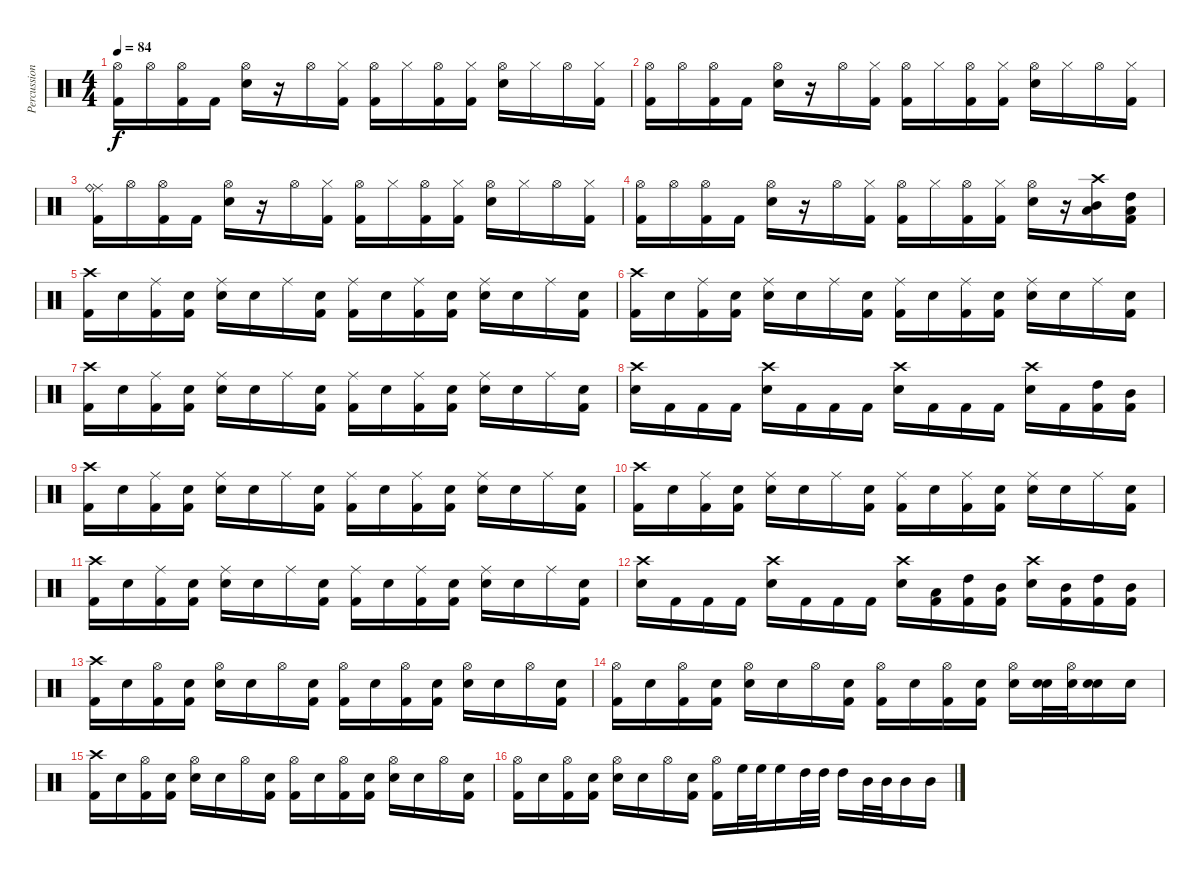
\track ("Percussion" "Percussion") {instrument percussion}
\staff {score}
\articulation defaults
\ts (4 4)
\tempo 84
\clef neutral
\ks c
("Hi-Hat (open)" "Kick (hit) 2").16{dy f} "Hi-Hat (open)".16 ("Hi-Hat (open)" "Kick (hit) 2").16 "Kick (hit) 2".16 ("Hi-Hat (open)" "Electric Snare (hit)").16 r.16 "Hi-Hat (open)".16 ("Hi-Hat (closed)" "Kick (hit) 2").16 ("Hi-Hat (open)" "Kick (hit) 2").16 "Hi-Hat (closed)".16 ("Hi-Hat (open)" "Kick (hit) 2").16 ("Hi-Hat (closed)" "Kick (hit) 2").16 ("Hi-Hat (open)" "Electric Snare (hit)").16 "Hi-Hat (closed)".16 "Hi-Hat (open)".16 ("Hi-Hat (closed)" "Kick (hit) 2").16 |
("Hi-Hat (open)" "Kick (hit) 2").16 "Hi-Hat (open)".16 ("Hi-Hat (open)" "Kick (hit) 2").16 "Kick (hit) 2".16 ("Hi-Hat (open)" "Electric Snare (hit)").16 r.16 "Hi-Hat (open)".16 ("Hi-Hat (closed)" "Kick (hit) 2").16 ("Hi-Hat (open)" "Kick (hit) 2").16 "Hi-Hat (closed)".16 ("Hi-Hat (open)" "Kick (hit) 2").16 ("Hi-Hat (closed)" "Kick (hit) 2").16 ("Hi-Hat (open)" "Electric Snare (hit)").16 "Hi-Hat (closed)".16 "Hi-Hat (open)".16 ("Hi-Hat (closed)" "Kick (hit) 2").16 |
("Ride (middle)" "Ride (bell)" "Kick (hit) 2").16 "Hi-Hat (open)".16 ("Hi-Hat (open)" "Kick (hit) 2").16 "Kick (hit) 2".16 ("Hi-Hat (open)" "Electric Snare (hit)").16 r.16 "Hi-Hat (open)".16 ("Hi-Hat (closed)" "Kick (hit) 2").16 ("Hi-Hat (open)" "Kick (hit) 2").16 "Hi-Hat (closed)".16 ("Hi-Hat (open)" "Kick (hit) 2").16 ("Hi-Hat (closed)" "Kick (hit) 2").16 ("Hi-Hat (open)" "Electric Snare (hit)").16 "Hi-Hat (closed)".16 "Hi-Hat (open)".16 ("Hi-Hat (closed)" "Kick (hit) 2").16 |
("Hi-Hat (open)" "Kick (hit) 2").16 "Hi-Hat (open)".16 ("Hi-Hat (open)" "Kick (hit) 2").16 "Kick (hit) 2".16 ("Hi-Hat (open)" "Electric Snare (hit)").16 r.16 "Hi-Hat (open)".16 ("Hi-Hat (closed)" "Kick (hit) 2").16 ("Hi-Hat (open)" "Kick (hit) 2").16 "Hi-Hat (closed)".16 ("Hi-Hat (open)" "Kick (hit) 2").16 ("Hi-Hat (closed)" "Kick (hit) 2").16 ("Hi-Hat (open)" "Snare (hit) 2").16 r.16 ("Crash high (hit)" "Mid Tom (hit)" "Low Tom (hit)").16 ("High Tom (hit)" "Low Tom (hit)" "Kick (hit) 2").16 |
("Crash high (hit)" "Kick (hit) 2").16 "Snare (hit)".16 ("Ride (middle)" "Kick (hit) 2").16 ("Snare (hit)" "Kick (hit) 2").16 ("Ride (middle)" "Snare (hit) 2").16 "Snare (hit)".16 "Ride (middle)".16 ("Snare (hit)" "Kick (hit) 2").16 ("Ride (middle)" "Kick (hit) 2").16 "Snare (hit)".16 ("Ride (middle)" "Kick (hit) 2").16 ("Snare (hit)" "Kick (hit) 2").16 ("Ride (middle)" "Snare (hit) 2").16 "Snare (hit)".16 "Ride (middle)".16 ("Snare (hit)" "Kick (hit) 2").16 |
("Crash high (hit)" "Kick (hit) 2").16 "Snare (hit)".16 ("Ride (middle)" "Kick (hit) 2").16 ("Snare (hit)" "Kick (hit) 2").16 ("Ride (middle)" "Snare (hit) 2").16 "Snare (hit)".16 "Ride (middle)".16 ("Snare (hit)" "Kick (hit) 2").16 ("Ride (middle)" "Kick (hit) 2").16 "Snare (hit)".16 ("Ride (middle)" "Kick (hit) 2").16 ("Snare (hit)" "Kick (hit) 2").16 ("Ride (middle)" "Snare (hit) 2").16 "Snare (hit)".16 "Ride (middle)".16 ("Snare (hit)" "Kick (hit) 2").16 |
("Crash high (hit)" "Kick (hit) 2").16 "Snare (hit)".16 ("Ride (middle)" "Kick (hit) 2").16 ("Snare (hit)" "Kick (hit) 2").16 ("Ride (middle)" "Snare (hit) 2").16 "Snare (hit)".16 "Ride (middle)".16 ("Snare (hit)" "Kick (hit) 2").16 ("Ride (middle)" "Kick (hit) 2").16 "Snare (hit)".16 ("Ride (middle)" "Kick (hit) 2").16 ("Snare (hit)" "Kick (hit) 2").16 ("Ride (middle)" "Snare (hit) 2").16 "Snare (hit)".16 "Ride (middle)".16 ("Snare (hit)" "Kick (hit) 2").16 |
("Crash high (hit)" "Snare (hit) 2").16 "Kick (hit) 2".16 "Kick (hit) 2".16 "Kick (hit) 2".16 ("Crash high (hit)" "Snare (hit) 2").16 "Kick (hit) 2".16 "Kick (hit) 2".16 "Kick (hit) 2".16 ("Crash high (hit)" "Snare (hit) 2").16 "Kick (hit) 2".16 "Kick (hit) 2".16 "Kick (hit) 2".16 ("Crash high (hit)" "Snare (hit) 2").16 "Kick (hit) 2".16 ("High Tom (hit)" "Kick (hit) 2").16 ("Mid Tom (hit)" "Kick (hit) 2").16 |
("Crash high (hit)" "Kick (hit) 2").16 "Snare (hit)".16 ("Ride (middle)" "Kick (hit) 2").16 ("Snare (hit)" "Kick (hit) 2").16 ("Ride (middle)" "Snare (hit) 2").16 "Snare (hit)".16 "Ride (middle)".16 ("Snare (hit)" "Kick (hit) 2").16 ("Ride (middle)" "Kick (hit) 2").16 "Snare (hit)".16 ("Ride (middle)" "Kick (hit) 2").16 ("Snare (hit)" "Kick (hit) 2").16 ("Ride (middle)" "Snare (hit) 2").16 "Snare (hit)".16 "Ride (middle)".16 ("Snare (hit)" "Kick (hit) 2").16 |
("Crash high (hit)" "Kick (hit) 2").16 "Snare (hit)".16 ("Ride (middle)" "Kick (hit) 2").16 ("Snare (hit)" "Kick (hit) 2").16 ("Ride (middle)" "Snare (hit) 2").16 "Snare (hit)".16 "Ride (middle)".16 ("Snare (hit)" "Kick (hit) 2").16 ("Ride (middle)" "Kick (hit) 2").16 "Snare (hit)".16 ("Ride (middle)" "Kick (hit) 2").16 ("Snare (hit)" "Kick (hit) 2").16 ("Ride (middle)" "Snare (hit) 2").16 "Snare (hit)".16 "Ride (middle)".16 ("Snare (hit)" "Kick (hit) 2").16 |
("Crash high (hit)" "Kick (hit) 2").16 "Snare (hit)".16 ("Ride (middle)" "Kick (hit) 2").16 ("Snare (hit)" "Kick (hit) 2").16 ("Ride (middle)" "Snare (hit) 2").16 "Snare (hit)".16 "Ride (middle)".16 ("Snare (hit)" "Kick (hit) 2").16 ("Ride (middle)" "Kick (hit) 2").16 "Snare (hit)".16 ("Ride (middle)" "Kick (hit) 2").16 ("Snare (hit)" "Kick (hit) 2").16 ("Ride (middle)" "Snare (hit) 2").16 "Snare (hit)".16 "Ride (middle)".16 ("Snare (hit)" "Kick (hit) 2").16 |
("Crash high (hit)" "Snare (hit) 2").16 "Kick (hit) 2".16 "Kick (hit) 2".16 "Kick (hit) 2".16 ("Crash high (hit)" "Snare (hit) 2").16 "Kick (hit) 2".16 "Kick (hit) 2".16 "Kick (hit) 2".16 ("Crash high (hit)" "Snare (hit) 2").16 ("Low Tom (hit)" "Kick (hit) 2").16 ("High Tom (hit)" "Kick (hit) 2").16 ("Mid Tom (hit)" "Kick (hit) 2").16 ("Crash high (hit)" "Snare (hit) 2").16 ("Mid Tom (hit)" "Kick (hit) 2").16 ("High Tom (hit)" "Kick (hit) 2").16 ("Mid Tom (hit)" "Kick (hit) 2").16 |
("Crash high (hit)" "Kick (hit) 2").16 "Snare (hit)".16 ("Hi-Hat (open)" "Kick (hit) 2").16 ("Snare (hit)" "Kick (hit) 2").16 ("Hi-Hat (open)" "Snare (hit) 2").16 "Snare (hit)".16 "Hi-Hat (open)".16 ("Snare (hit)" "Kick (hit) 2").16 ("Hi-Hat (open)" "Kick (hit) 2").16 "Snare (hit)".16 ("Hi-Hat (open)" "Kick (hit) 2").16 ("Snare (hit)" "Kick (hit) 2").16 ("Hi-Hat (open)" "Snare (hit) 2").16 "Snare (hit)".16 "Hi-Hat (open)".16 ("Snare (hit)" "Kick (hit) 2").16 |
("Hi-Hat (open)" "Kick (hit) 2").16 "Snare (hit)".16 ("Hi-Hat (open)" "Kick (hit) 2").16 ("Snare (hit)" "Kick (hit) 2").16 ("Hi-Hat (open)" "Snare (hit) 2").16 "Snare (hit)".16 "Hi-Hat (open)".16 ("Snare (hit)" "Kick (hit) 2").16 ("Hi-Hat (open)" "Kick (hit) 2").16 "Snare (hit)".16 ("Hi-Hat (open)" "Kick (hit) 2").16 ("Snare (hit)" "Kick (hit) 2").16 ("Hi-Hat (open)" "Snare (hit) 2").16 ("Snare (hit)" "Snare (hit) 2").32 ("Hi-Hat (open)" "Snare (hit) 2").32 ("Snare (hit)" "Snare (hit) 2").16 "Snare (hit) 2".16 |
("Crash high (hit)" "Kick (hit) 2").16 "Snare (hit)".16 ("Hi-Hat (open)" "Kick (hit) 2").16 ("Snare (hit)" "Kick (hit) 2").16 ("Hi-Hat (open)" "Snare (hit) 2").16 "Snare (hit)".16 "Hi-Hat (open)".16 ("Snare (hit)" "Kick (hit) 2").16 ("Hi-Hat (open)" "Kick (hit) 2").16 "Snare (hit)".16 ("Hi-Hat (open)" "Kick (hit) 2").16 ("Snare (hit)" "Kick (hit) 2").16 ("Hi-Hat (open)" "Snare (hit) 2").16 "Snare (hit)".16 "Hi-Hat (open)".16 ("Snare (hit)" "Kick (hit) 2").16 |
("Hi-Hat (open)" "Kick (hit) 2").16 "Snare (hit)".16 ("Hi-Hat (open)" "Kick (hit) 2").16 ("Snare (hit)" "Kick (hit) 2").16 ("Hi-Hat (open)" "Snare (hit) 2").16 "Snare (hit)".16 "Hi-Hat (open)".16 ("Snare (hit)" "Kick (hit) 2").16 ("Hi-Hat (open)" "Kick (hit) 2").16 "High Floor Tom (hit)".32 "High Floor Tom (hit)".32 "High Floor Tom (hit)".16 "High Tom (hit)".32 "High Tom (hit)".32 "High Tom (hit)".16 "Mid Tom (hit)".32 "Mid Tom (hit)".32 "Mid Tom (hit)".16 "Mid Tom (hit)".16
